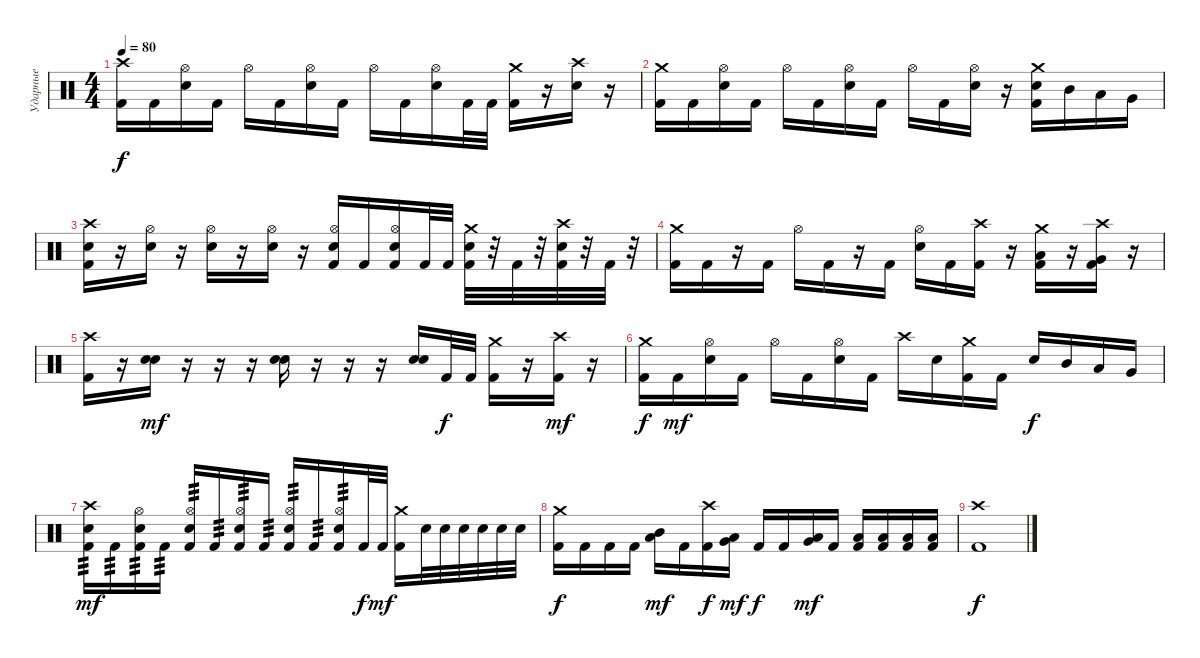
\track ("Ударные" "Ударные") {instrument percussion}
\staff {score}
\articulation defaults
\ts (4 4)
\tempo 80
\clef neutral
\ks c
("Crash high (hit)" "Kick (hit) 2").16{dy f} "Kick (hit) 2".16 ("Hi-Hat (open)" "Electric Snare (hit)").16 "Kick (hit) 2".16 "Hi-Hat (open)".16 "Kick (hit) 2".16 ("Hi-Hat (open)" "Electric Snare (hit)").16 "Kick (hit) 2".16 "Hi-Hat (open)".16 "Kick (hit) 2".16 ("Hi-Hat (open)" "Electric Snare (hit)").16 "Kick (hit) 2".32 "Kick (hit) 2".32 ("Crash medium (hit)" "Kick (hit) 2").16 r.16 ("Crash high (hit)" "Electric Snare (hit)").16 r.16 |
("Crash medium (hit)" "Kick (hit) 2").16 "Kick (hit) 2".16 ("Hi-Hat (open)" "Electric Snare (hit)").16 "Kick (hit) 2".16 "Hi-Hat (open)".16 "Kick (hit) 2".16 ("Hi-Hat (open)" "Electric Snare (hit)").16 "Kick (hit) 2".16 "Hi-Hat (open)".16 "Kick (hit) 2".16 ("Hi-Hat (open)" "Electric Snare (hit)").16 r.16 ("Crash medium (hit)" "Electric Snare (hit)" "Kick (hit) 2").16 "Mid Tom (hit)".16 "Low Tom (hit)".16 "Very Low Tom (hit)".16 |
("Crash high (hit)" "Electric Snare (hit)" "Kick (hit) 2").16 r.16 ("Hi-Hat (open)" "Electric Snare (hit)").16 r.16 ("Hi-Hat (open)" "Electric Snare (hit)").16 r.16 ("Hi-Hat (open)" "Electric Snare (hit)").16 r.16 ("Hi-Hat (open)" "Electric Snare (hit)" "Kick (hit) 2").16 "Kick (hit) 2".16 ("Hi-Hat (open)" "Electric Snare (hit)" "Kick (hit) 2").16 "Kick (hit) 2".32 "Kick (hit) 2".32 ("Crash medium (hit)" "Electric Snare (hit)" "Kick (hit) 2").32 r.32 "Kick (hit) 2".32 r.32 ("Crash high (hit)" "Electric Snare (hit)" "Kick (hit) 2").32 r.32 "Kick (hit) 2".32 r.32 |
("Crash medium (hit)" "Kick (hit) 2").16 "Kick (hit) 2".16 r.16 "Kick (hit) 2".16 "Hi-Hat (open)".16 "Kick (hit) 2".16 r.16 "Kick (hit) 2".16 ("Hi-Hat (open)" "Electric Snare (hit)").16 "Kick (hit) 2".16 ("Crash high (hit)" "Kick (hit) 2").16 r.16 ("Crash medium (hit)" "Low Tom (hit)" "Kick (hit) 2").16 r.16 ("Crash high (hit)" "Very Low Tom (hit)" "Kick (hit) 2").16 r.16 |
("Crash high (hit)" "Kick (hit) 2").16 r.16 ("Electric Snare (hit)" "Snare (hit) 2").16{dy mf} r.16 r.16 r.16 ("Electric Snare (hit)" "Snare (hit) 2").16 r.16 r.16 r.16 ("Electric Snare (hit)" "Snare (hit) 2").16 "Kick (hit) 2".32{dy f} "Kick (hit) 2".32 ("Crash medium (hit)" "Kick (hit) 2").16 r.16 ("Crash high (hit)" "Kick (hit) 2").16{dy mf} r.16 |
("Crash medium (hit)" "Kick (hit) 2").16{dy f} "Kick (hit) 2".16{dy mf} ("Hi-Hat (open)" "Electric Snare (hit)").16 "Kick (hit) 2".16 "Hi-Hat (open)".16 "Kick (hit) 2".16 ("Hi-Hat (open)" "Electric Snare (hit)").16 "Kick (hit) 2".16 "Crash high (hit)".16 "Electric Snare (hit)".16 ("Crash medium (hit)" "Kick (hit) 2").16 "Kick (hit) 2".16 "Electric Snare (hit)".16{dy f} "Mid Tom (hit)".16 "Low Tom (hit)".16 "Very Low Tom (hit)".16 |
("Crash high (hit)" "Electric Snare (hit)" "Kick (hit) 2").16{tp 3 dy mf} "Kick (hit) 2".16{tp 3} ("Hi-Hat (open)" "Electric Snare (hit)" "Kick (hit) 2").16{tp 3} "Kick (hit) 2".16{tp 3} ("Hi-Hat (open)" "Electric Snare (hit)" "Kick (hit) 2").16{tp 3} "Kick (hit) 2".16{tp 3} ("Hi-Hat (open)" "Electric Snare (hit)" "Kick (hit) 2").16{tp 3} "Kick (hit) 2".16{tp 3} ("Hi-Hat (open)" "Electric Snare (hit)" "Kick (hit) 2").16{tp 3} "Kick (hit) 2".16{tp 3} ("Hi-Hat (open)" "Electric Snare (hit)" "Kick (hit) 2").16{tp 3} "Kick (hit) 2".32{dy f} "Kick (hit) 2".32{dy mf} ("Crash medium (hit)" "Kick (hit) 2").16 "Electric Snare (hit)".32 "Electric Snare (hit)".32 "Electric Snare (hit)".32 "Electric Snare (hit)".32 "Electric Snare (hit)".32 "Electric Snare (hit)".32 |
("Crash medium (hit)" "Kick (hit) 2").16{dy f} "Kick (hit) 2".16 "Kick (hit) 2".16 "Kick (hit) 2".16 ("Low Tom (hit)" "Mid Tom (hit)").16{dy mf} "Kick (hit) 2".16 ("Crash high (hit)" "Kick (hit) 2").16{dy f} ("Very Low Tom (hit)" "Low Tom (hit)").16{dy mf} "Kick (hit) 2".16{dy f} "Kick (hit) 2".16 ("Very Low Tom (hit)" "Low Floor Tom (hit)").16{dy mf} "Kick (hit) 2".16 ("Low Floor Tom (hit)" "Kick (hit) 2").16 ("Low Floor Tom (hit)" "Kick (hit) 2").16 ("Low Floor Tom (hit)" "Kick (hit) 2").16 ("Low Floor Tom (hit)" "Kick (hit) 2").16 |
("Crash high (hit)" "Kick (hit) 2").1{dy f}
